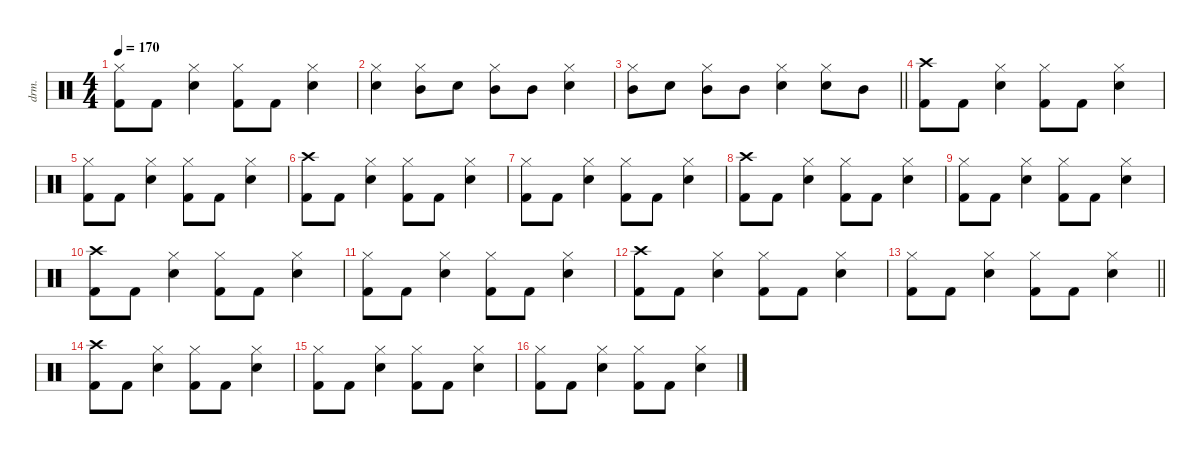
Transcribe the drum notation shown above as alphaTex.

\defaultSystemsLayout 4
\hideDynamics
\bracketExtendMode nobrackets
\otherSystemsTrackNameOrientation horizontal
\track ("Percussion" "drm.") {instrument percussion}
\staff {score}
\articulation defaults
\ts (4 4)
\tempo 170
\clef neutral
\ks c
("Hi-Hat (closed)" "Kick (hit) 2").8{dy f beam Down} "Kick (hit) 2".8{beam Down} ("Hi-Hat (closed)" "Snare (hit) 2").4{beam Down} ("Hi-Hat (closed)" "Kick (hit) 2").8{beam Down} "Kick (hit) 2".8{beam Down} ("Hi-Hat (closed)" "Snare (hit) 2").4{beam Down} |
("Hi-Hat (closed)" "Snare (hit) 2").4{beam Down} ("Hi-Hat (closed)" "Mid Tom (hit)").8{beam Down} "Snare (hit) 2".8{beam Down} ("Hi-Hat (closed)" "Mid Tom (hit)").8{beam Down} "Mid Tom (hit)".8{beam Down} ("Hi-Hat (closed)" "Snare (hit) 2").4{beam Down} |
\barLineRight lightlight
("Hi-Hat (closed)" "Mid Tom (hit)").8{beam Down} "Snare (hit) 2".8{beam Down} ("Hi-Hat (closed)" "Mid Tom (hit)").8{beam Down} "Mid Tom (hit)".8{beam Down} ("Hi-Hat (closed)" "Snare (hit) 2").4{beam Down} ("Hi-Hat (closed)" "Snare (hit) 2").8{beam Down} "Mid Tom (hit)".8{beam Down} |
("Crash high (hit)" "Kick (hit) 2").8{beam Down} "Kick (hit) 2".8{beam Down} ("Hi-Hat (closed)" "Snare (hit) 2").4{beam Down} ("Hi-Hat (closed)" "Kick (hit) 2").8{beam Down} "Kick (hit) 2".8{beam Down} ("Hi-Hat (closed)" "Snare (hit) 2").4{beam Down} |
("Hi-Hat (closed)" "Kick (hit) 2").8{beam Down} "Kick (hit) 2".8{beam Down} ("Hi-Hat (closed)" "Snare (hit) 2").4{beam Down} ("Hi-Hat (closed)" "Kick (hit) 2").8{beam Down} "Kick (hit) 2".8{beam Down} ("Hi-Hat (closed)" "Snare (hit) 2").4{beam Down} |
("Crash high (hit)" "Kick (hit) 2").8{beam Down} "Kick (hit) 2".8{beam Down} ("Hi-Hat (closed)" "Snare (hit) 2").4{beam Down} ("Hi-Hat (closed)" "Kick (hit) 2").8{beam Down} "Kick (hit) 2".8{beam Down} ("Hi-Hat (closed)" "Snare (hit) 2").4{beam Down} |
("Hi-Hat (closed)" "Kick (hit) 2").8{beam Down} "Kick (hit) 2".8{beam Down} ("Hi-Hat (closed)" "Snare (hit) 2").4{beam Down} ("Hi-Hat (closed)" "Kick (hit) 2").8{beam Down} "Kick (hit) 2".8{beam Down} ("Hi-Hat (closed)" "Snare (hit) 2").4{beam Down} |
("Crash high (hit)" "Kick (hit) 2").8{beam Down} "Kick (hit) 2".8{beam Down} ("Hi-Hat (closed)" "Snare (hit) 2").4{beam Down} ("Hi-Hat (closed)" "Kick (hit) 2").8{beam Down} "Kick (hit) 2".8{beam Down} ("Hi-Hat (closed)" "Snare (hit) 2").4{beam Down} |
("Hi-Hat (closed)" "Kick (hit) 2").8{beam Down} "Kick (hit) 2".8{beam Down} ("Hi-Hat (closed)" "Snare (hit) 2").4{beam Down} ("Hi-Hat (closed)" "Kick (hit) 2").8{beam Down} "Kick (hit) 2".8{beam Down} ("Hi-Hat (closed)" "Snare (hit) 2").4{beam Down} |
("Crash high (hit)" "Kick (hit) 2").8{beam Down} "Kick (hit) 2".8{beam Down} ("Hi-Hat (closed)" "Snare (hit) 2").4{beam Down} ("Hi-Hat (closed)" "Kick (hit) 2").8{beam Down} "Kick (hit) 2".8{beam Down} ("Hi-Hat (closed)" "Snare (hit) 2").4{beam Down} |
("Hi-Hat (closed)" "Kick (hit) 2").8{beam Down} "Kick (hit) 2".8{beam Down} ("Hi-Hat (closed)" "Snare (hit) 2").4{beam Down} ("Hi-Hat (closed)" "Kick (hit) 2").8{beam Down} "Kick (hit) 2".8{beam Down} ("Hi-Hat (closed)" "Snare (hit) 2").4{beam Down} |
("Crash high (hit)" "Kick (hit) 2").8{beam Down} "Kick (hit) 2".8{beam Down} ("Hi-Hat (closed)" "Snare (hit) 2").4{beam Down} ("Hi-Hat (closed)" "Kick (hit) 2").8{beam Down} "Kick (hit) 2".8{beam Down} ("Hi-Hat (closed)" "Snare (hit) 2").4{beam Down} |
\barLineRight lightlight
("Hi-Hat (closed)" "Kick (hit) 2").8{beam Down} "Kick (hit) 2".8{beam Down} ("Hi-Hat (closed)" "Snare (hit) 2").4{beam Down} ("Hi-Hat (closed)" "Kick (hit) 2").8{beam Down} "Kick (hit) 2".8{beam Down} ("Hi-Hat (closed)" "Snare (hit) 2").4{beam Down} |
("Crash high (hit)" "Kick (hit) 2").8{beam Down} "Kick (hit) 2".8{beam Down} ("Hi-Hat (closed)" "Snare (hit) 2").4{beam Down} ("Hi-Hat (closed)" "Kick (hit) 2").8{beam Down} "Kick (hit) 2".8{beam Down} ("Hi-Hat (closed)" "Snare (hit) 2").4{beam Down} |
("Hi-Hat (closed)" "Kick (hit) 2").8{beam Down} "Kick (hit) 2".8{beam Down} ("Hi-Hat (closed)" "Snare (hit) 2").4{beam Down} ("Hi-Hat (closed)" "Kick (hit) 2").8{beam Down} "Kick (hit) 2".8{beam Down} ("Hi-Hat (closed)" "Snare (hit) 2").4{beam Down} |
("Hi-Hat (closed)" "Kick (hit) 2").8{beam Down} "Kick (hit) 2".8{beam Down} ("Hi-Hat (closed)" "Snare (hit) 2").4{beam Down} ("Hi-Hat (closed)" "Kick (hit) 2").8{beam Down} "Kick (hit) 2".8{beam Down} ("Hi-Hat (closed)" "Snare (hit) 2").4{beam Down}
